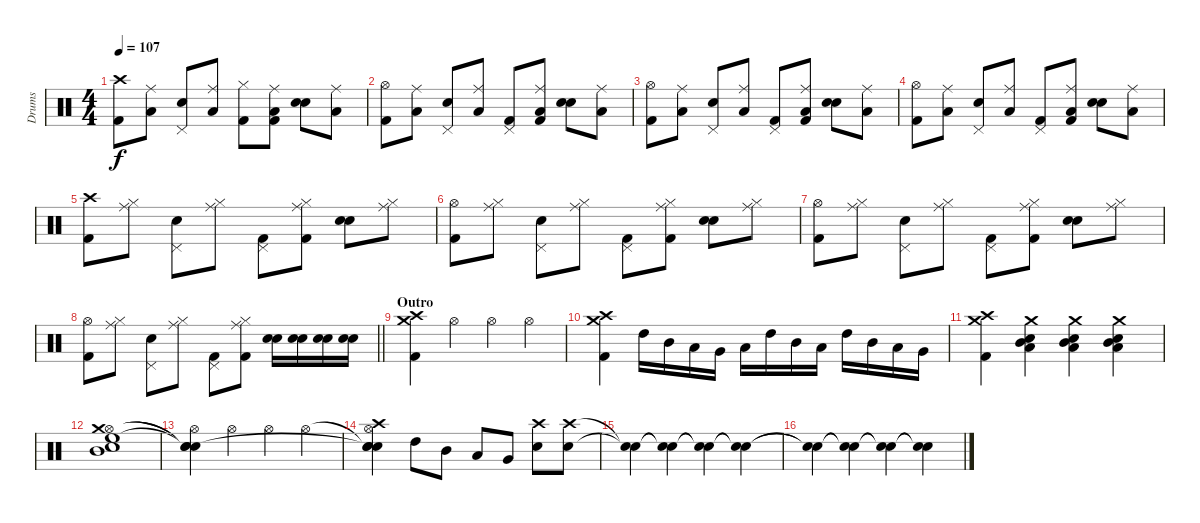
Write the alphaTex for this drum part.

\track ("Drums" "Drums") {instrument percussion}
\staff {score}
\articulation defaults
\ts (4 4)
\tempo 107
\clef neutral
\ks c
("Crash high (hit)" "Kick (hit) 2").8{dy f} ("Ride (middle)" "Low Tom (hit)").8 ("Pedal Hi-Hat (hit)" "Electric Snare (hit)").8 ("Ride (middle)" "Low Tom (hit)").8 ("Hi-Hat (closed)" "Kick (hit) 2").8 ("Ride (middle)" "Low Tom (hit)" "Kick (hit) 2").8 ("Snare (hit) 2" "Electric Snare (hit)").8 ("Ride (middle)" "Low Tom (hit)").8 |
("Hi-Hat (open)" "Kick (hit) 2").8 ("Ride (middle)" "Low Tom (hit)").8 ("Pedal Hi-Hat (hit)" "Electric Snare (hit)").8 ("Ride (middle)" "Low Tom (hit)").8 ("Pedal Hi-Hat (hit)" "Kick (hit) 2").8 ("Ride (middle)" "Low Tom (hit)" "Kick (hit) 2").8 ("Snare (hit) 2" "Electric Snare (hit)").8 ("Ride (middle)" "Low Tom (hit)").8 |
("Hi-Hat (open)" "Kick (hit) 2").8 ("Ride (middle)" "Low Tom (hit)").8 ("Pedal Hi-Hat (hit)" "Electric Snare (hit)").8 ("Ride (middle)" "Low Tom (hit)").8 ("Pedal Hi-Hat (hit)" "Kick (hit) 2").8 ("Ride (middle)" "Low Tom (hit)" "Kick (hit) 2").8 ("Snare (hit) 2" "Electric Snare (hit)").8 ("Ride (middle)" "Low Tom (hit)").8 |
("Hi-Hat (open)" "Kick (hit) 2").8 ("Ride (middle)" "Low Tom (hit)").8 ("Pedal Hi-Hat (hit)" "Electric Snare (hit)").8 ("Ride (middle)" "Low Tom (hit)").8 ("Pedal Hi-Hat (hit)" "Kick (hit) 2").8 ("Ride (middle)" "Low Tom (hit)" "Kick (hit) 2").8 ("Snare (hit) 2" "Electric Snare (hit)").8 ("Ride (middle)" "Low Tom (hit)").8 |
("Crash high (hit)" "Kick (hit) 2").8 ("Ride (middle)" "Hi-Hat (closed)").8 ("Pedal Hi-Hat (hit)" "Electric Snare (hit)").8 ("Ride (middle)" "Hi-Hat (closed)").8 ("Pedal Hi-Hat (hit)" "Kick (hit) 2").8 ("Ride (middle)" "Hi-Hat (closed)" "Kick (hit) 2").8 ("Snare (hit) 2" "Electric Snare (hit)").8 ("Ride (middle)" "Hi-Hat (closed)").8 |
("Hi-Hat (open)" "Kick (hit) 2").8 ("Ride (middle)" "Hi-Hat (closed)").8 ("Pedal Hi-Hat (hit)" "Electric Snare (hit)").8 ("Ride (middle)" "Hi-Hat (closed)").8 ("Pedal Hi-Hat (hit)" "Kick (hit) 2").8 ("Ride (middle)" "Hi-Hat (closed)" "Kick (hit) 2").8 ("Snare (hit) 2" "Electric Snare (hit)").8 ("Ride (middle)" "Hi-Hat (closed)").8 |
("Hi-Hat (open)" "Kick (hit) 2").8 ("Ride (middle)" "Hi-Hat (closed)").8 ("Pedal Hi-Hat (hit)" "Electric Snare (hit)").8 ("Ride (middle)" "Hi-Hat (closed)").8 ("Pedal Hi-Hat (hit)" "Kick (hit) 2").8 ("Ride (middle)" "Hi-Hat (closed)" "Kick (hit) 2").8 ("Snare (hit) 2" "Electric Snare (hit)").8 ("Ride (middle)" "Hi-Hat (closed)").8 |
\barLineRight lightlight
("Hi-Hat (open)" "Kick (hit) 2").8 ("Ride (middle)" "Hi-Hat (closed)").8 ("Pedal Hi-Hat (hit)" "Electric Snare (hit)").8 ("Ride (middle)" "Hi-Hat (closed)").8 ("Pedal Hi-Hat (hit)" "Kick (hit) 2").8 ("Ride (middle)" "Hi-Hat (closed)" "Kick (hit) 2").8 ("Snare (hit) 2" "Electric Snare (hit)").16 ("Snare (hit) 2" "Electric Snare (hit)").16 ("Snare (hit) 2" "Electric Snare (hit)").16 ("Snare (hit) 2" "Electric Snare (hit)").16 |
\section ("" "Outro")
("Crash high (hit)" "Crash medium (hit)" "Kick (hit) 2").4 "Hi-Hat (open)".4 "Hi-Hat (open)".4 "Hi-Hat (open)".4 |
("Crash medium (hit)" "Crash high (hit)" "Kick (hit) 2").4 "High Tom (hit)".16 "Mid Tom (hit)".16 "Low Tom (hit)".16 "Very Low Tom (hit)".16 "Low Tom (hit)".16 "High Tom (hit)".16 "Mid Tom (hit)".16 "Low Tom (hit)".16 "High Tom (hit)".16 "Mid Tom (hit)".16 "Low Tom (hit)".16 "Very Low Tom (hit)".16 |
("Crash high (hit)" "Crash medium (hit)" "Kick (hit) 2").4 ("Crash medium (hit)" "Mid Tom (hit)" "Electric Snare (hit)" "Low Floor Tom (hit)").4 ("Crash medium (hit)" "Mid Tom (hit)" "Electric Snare (hit)" "Low Floor Tom (hit)").4 ("Crash medium (hit)" "Mid Tom (hit)" "Electric Snare (hit)" "Low Floor Tom (hit)").4 |
("Hi-Hat (open)" "High Floor Tom (hit)" "Crash medium (hit)" "Mid Tom (hit)" "Electric Snare (hit)").1 |
("Snare (hit)"{t} "Snare (hit)"{t} "Snare (hit)"{t} "Hi-Hat (open)").4 "Hi-Hat (open)".4 "Hi-Hat (open)".4 "Hi-Hat (open)".4 |
("Snare (hit)"{t} "Snare (hit)"{t} "Crash high (hit)" "Hi-Hat (open)" "Electric Snare (hit)").4 "High Tom (hit)".8 "Mid Tom (hit)".8 "Low Tom (hit)".8 "Very Low Tom (hit)".8 ("Crash high (hit)" "Electric Snare (hit)").8 ("Crash high (hit)" "Electric Snare (hit)").8 |
("Snare (hit)"{t} "Snare (hit)"{t}).4 ("Snare (hit)"{t} "Snare (hit)"{t}).4 ("Snare (hit)"{t} "Snare (hit)"{t}).4 ("Snare (hit)"{t} "Snare (hit)"{t}).4 |
("Snare (hit)"{t} "Snare (hit)"{t}).4 ("Snare (hit)"{t} "Snare (hit)"{t}).4 ("Snare (hit)"{t} "Snare (hit)"{t}).4 ("Snare (hit)"{t} "Snare (hit)"{t}).4
